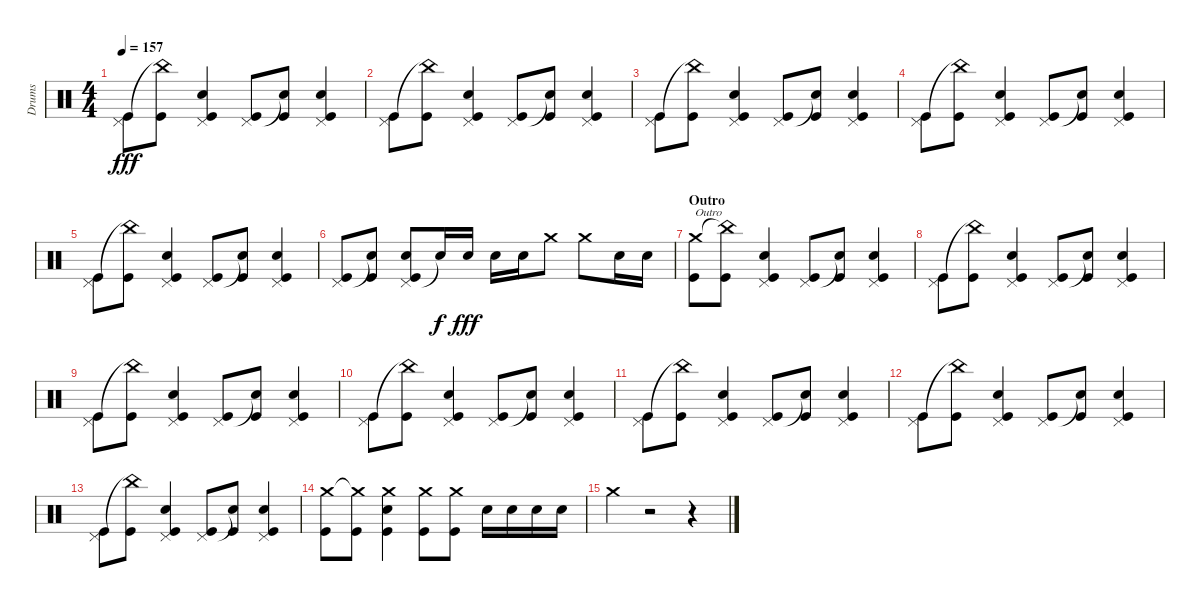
\track ("Drums" "Drums") {instrument percussion}
\staff {score}
\articulation defaults
\ts (4 4)
\tempo 157
\clef neutral
\ks c
("Pedal Hi-Hat (hit)" "Kick (hit)").8{dy fff} ("China (hit)"{t} "Kick (hit)").8 ("Pedal Hi-Hat (hit)" "Electric Snare (hit)" "Kick (hit)").4 ("Pedal Hi-Hat (hit)" "Kick (hit)").8 ("Snare (hit)"{t} "Kick (hit)").8 ("Pedal Hi-Hat (hit)" "Electric Snare (hit)" "Kick (hit)").4 |
("Pedal Hi-Hat (hit)" "Kick (hit)").8 ("China (hit)"{t} "Kick (hit)").8 ("Pedal Hi-Hat (hit)" "Electric Snare (hit)" "Kick (hit)").4 ("Pedal Hi-Hat (hit)" "Kick (hit)").8 ("Snare (hit)"{t} "Kick (hit)").8 ("Pedal Hi-Hat (hit)" "Electric Snare (hit)" "Kick (hit)").4 |
("Pedal Hi-Hat (hit)" "Kick (hit)").8 ("China (hit)"{t} "Kick (hit)").8 ("Pedal Hi-Hat (hit)" "Electric Snare (hit)" "Kick (hit)").4 ("Pedal Hi-Hat (hit)" "Kick (hit)").8 ("Snare (hit)"{t} "Kick (hit)").8 ("Pedal Hi-Hat (hit)" "Electric Snare (hit)" "Kick (hit)").4 |
("Pedal Hi-Hat (hit)" "Kick (hit)").8 ("China (hit)"{t} "Kick (hit)").8 ("Pedal Hi-Hat (hit)" "Electric Snare (hit)" "Kick (hit)").4 ("Pedal Hi-Hat (hit)" "Kick (hit)").8 ("Snare (hit)"{t} "Kick (hit)").8 ("Pedal Hi-Hat (hit)" "Electric Snare (hit)" "Kick (hit)").4 |
("Pedal Hi-Hat (hit)" "Kick (hit)").8 ("China (hit)"{t} "Kick (hit)").8 ("Pedal Hi-Hat (hit)" "Electric Snare (hit)" "Kick (hit)").4 ("Pedal Hi-Hat (hit)" "Kick (hit)").8 ("Snare (hit)"{t} "Kick (hit)").8 ("Pedal Hi-Hat (hit)" "Electric Snare (hit)" "Kick (hit)").4 |
("Pedal Hi-Hat (hit)" "Kick (hit)").8 ("Snare (hit)"{t} "Kick (hit)").8 ("Pedal Hi-Hat (hit)" "Electric Snare (hit)" "Kick (hit)").8 "Snare (hit)"{t}.16{dy f} "Electric Snare (hit)".16{dy fff} "Electric Snare (hit)".16 "Electric Snare (hit)".16 "Crash medium (hit)".8 "Crash medium (hit)".8 "Electric Snare (hit)".16 "Electric Snare (hit)".16 |
\section ("" "Outro")
("Crash medium (hit)" "Kick (hit)").8{txt "Outro"} ("China (hit)"{t} "Kick (hit)").8 ("Pedal Hi-Hat (hit)" "Electric Snare (hit)" "Kick (hit)").4 ("Pedal Hi-Hat (hit)" "Kick (hit)").8 ("Snare (hit)"{t} "Kick (hit)").8 ("Pedal Hi-Hat (hit)" "Electric Snare (hit)" "Kick (hit)").4 |
("Pedal Hi-Hat (hit)" "Kick (hit)").8 ("China (hit)"{t} "Kick (hit)").8 ("Pedal Hi-Hat (hit)" "Electric Snare (hit)" "Kick (hit)").4 ("Pedal Hi-Hat (hit)" "Kick (hit)").8 ("Snare (hit)"{t} "Kick (hit)").8 ("Pedal Hi-Hat (hit)" "Electric Snare (hit)" "Kick (hit)").4 |
("Pedal Hi-Hat (hit)" "Kick (hit)").8 ("China (hit)"{t} "Kick (hit)").8 ("Pedal Hi-Hat (hit)" "Electric Snare (hit)" "Kick (hit)").4 ("Pedal Hi-Hat (hit)" "Kick (hit)").8 ("Snare (hit)"{t} "Kick (hit)").8 ("Pedal Hi-Hat (hit)" "Electric Snare (hit)" "Kick (hit)").4 |
("Pedal Hi-Hat (hit)" "Kick (hit)").8 ("China (hit)"{t} "Kick (hit)").8 ("Pedal Hi-Hat (hit)" "Electric Snare (hit)" "Kick (hit)").4 ("Pedal Hi-Hat (hit)" "Kick (hit)").8 ("Snare (hit)"{t} "Kick (hit)").8 ("Pedal Hi-Hat (hit)" "Electric Snare (hit)" "Kick (hit)").4 |
("Pedal Hi-Hat (hit)" "Kick (hit)").8 ("China (hit)"{t} "Kick (hit)").8 ("Pedal Hi-Hat (hit)" "Electric Snare (hit)" "Kick (hit)").4 ("Pedal Hi-Hat (hit)" "Kick (hit)").8 ("Snare (hit)"{t} "Kick (hit)").8 ("Pedal Hi-Hat (hit)" "Electric Snare (hit)" "Kick (hit)").4 |
("Pedal Hi-Hat (hit)" "Kick (hit)").8 ("China (hit)"{t} "Kick (hit)").8 ("Pedal Hi-Hat (hit)" "Electric Snare (hit)" "Kick (hit)").4 ("Pedal Hi-Hat (hit)" "Kick (hit)").8 ("Snare (hit)"{t} "Kick (hit)").8 ("Pedal Hi-Hat (hit)" "Electric Snare (hit)" "Kick (hit)").4 |
("Pedal Hi-Hat (hit)" "Kick (hit)").8 ("China (hit)"{t} "Kick (hit)").8 ("Pedal Hi-Hat (hit)" "Electric Snare (hit)" "Kick (hit)").4 ("Pedal Hi-Hat (hit)" "Kick (hit)").8 ("Snare (hit)"{t} "Kick (hit)").8 ("Pedal Hi-Hat (hit)" "Electric Snare (hit)" "Kick (hit)").4 |
("Crash medium (hit)" "Kick (hit)").8 ("Crash medium (hit)"{t} "Kick (hit)").8 ("Crash medium (hit)" "Electric Snare (hit)" "Kick (hit)").4 ("Crash medium (hit)" "Kick (hit)").8 ("Crash medium (hit)" "Kick (hit)").8 "Electric Snare (hit)".16 "Electric Snare (hit)".16 "Electric Snare (hit)".16 "Electric Snare (hit)".16 |
"Crash medium (hit)".4 r.2 r.4
